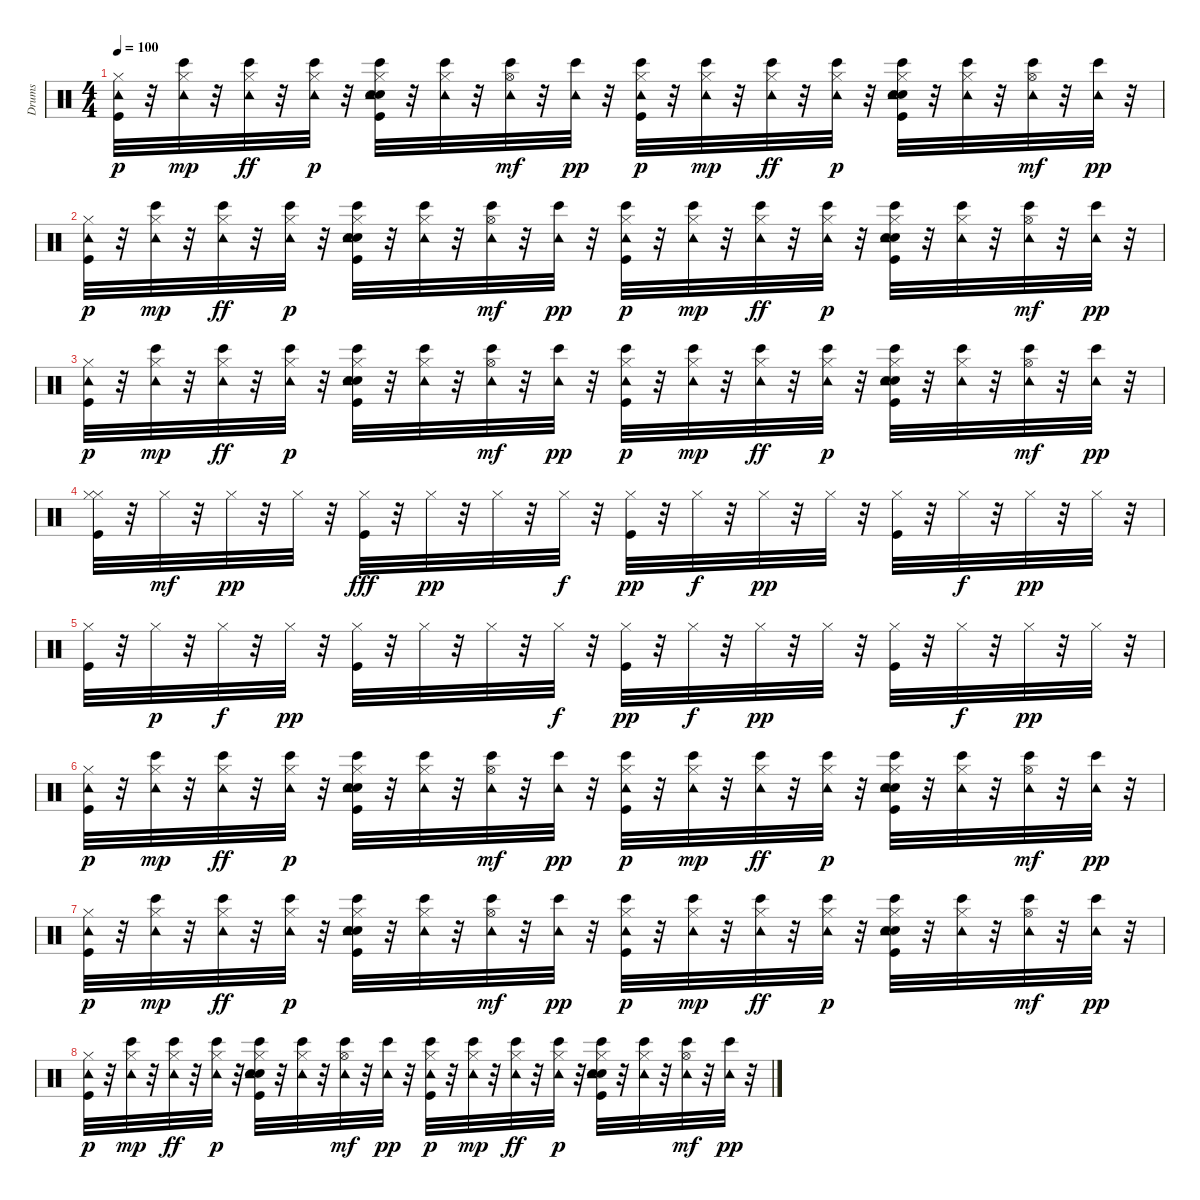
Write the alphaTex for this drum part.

\track ("Drums" "Drums") {instrument percussion}
\staff {score}
\articulation defaults
\ts (4 4)
\tempo 100
\clef neutral
\ks c
("Tambourine (hit)" "Kick (hit)" "Hi-Hat (closed)").32{dy p} r.32 ("Bongo High (hit)" "Tambourine (hit)" "Hi-Hat (closed)").32{dy mp} r.32 ("Bongo High (hit)" "Tambourine (hit)" "Hi-Hat (closed)").32{dy ff} r.32 ("Bongo High (hit)" "Tambourine (hit)" "Hi-Hat (closed)").32{dy p} r.32 ("Hand Clap (hit)" "Snare (hit) 2" "Bongo High (hit)" "Tambourine (hit)" "Kick (hit)" "Hi-Hat (closed)").32 r.32 ("Bongo High (hit)" "Tambourine (hit)" "Hi-Hat (closed)").32 r.32 ("Bongo High (hit)" "Tambourine (hit)" "Hi-Hat (open)").32{dy mf} r.32 ("Bongo High (hit)" "Tambourine (hit)").32{dy pp} r.32 ("Bongo High (hit)" "Tambourine (hit)" "Kick (hit)" "Hi-Hat (closed)").32{dy p} r.32 ("Bongo High (hit)" "Tambourine (hit)" "Hi-Hat (closed)").32{dy mp} r.32 ("Bongo High (hit)" "Tambourine (hit)" "Hi-Hat (closed)").32{dy ff} r.32 ("Bongo High (hit)" "Tambourine (hit)" "Hi-Hat (closed)").32{dy p} r.32 ("Hand Clap (hit)" "Snare (hit) 2" "Bongo High (hit)" "Tambourine (hit)" "Kick (hit)" "Hi-Hat (closed)").32 r.32 ("Bongo High (hit)" "Tambourine (hit)" "Hi-Hat (closed)").32 r.32 ("Bongo High (hit)" "Tambourine (hit)" "Hi-Hat (open)").32{dy mf} r.32 ("Bongo High (hit)" "Tambourine (hit)").32{dy pp} r.32 |
("Tambourine (hit)" "Kick (hit)" "Hi-Hat (closed)").32{dy p} r.32 ("Bongo High (hit)" "Tambourine (hit)" "Hi-Hat (closed)").32{dy mp} r.32 ("Bongo High (hit)" "Tambourine (hit)" "Hi-Hat (closed)").32{dy ff} r.32 ("Bongo High (hit)" "Tambourine (hit)" "Hi-Hat (closed)").32{dy p} r.32 ("Hand Clap (hit)" "Snare (hit) 2" "Bongo High (hit)" "Tambourine (hit)" "Kick (hit)" "Hi-Hat (closed)").32 r.32 ("Bongo High (hit)" "Tambourine (hit)" "Hi-Hat (closed)").32 r.32 ("Bongo High (hit)" "Tambourine (hit)" "Hi-Hat (open)").32{dy mf} r.32 ("Bongo High (hit)" "Tambourine (hit)").32{dy pp} r.32 ("Bongo High (hit)" "Tambourine (hit)" "Kick (hit)" "Hi-Hat (closed)").32{dy p} r.32 ("Bongo High (hit)" "Tambourine (hit)" "Hi-Hat (closed)").32{dy mp} r.32 ("Bongo High (hit)" "Tambourine (hit)" "Hi-Hat (closed)").32{dy ff} r.32 ("Bongo High (hit)" "Tambourine (hit)" "Hi-Hat (closed)").32{dy p} r.32 ("Hand Clap (hit)" "Snare (hit) 2" "Bongo High (hit)" "Tambourine (hit)" "Kick (hit)" "Hi-Hat (closed)").32 r.32 ("Bongo High (hit)" "Tambourine (hit)" "Hi-Hat (closed)").32 r.32 ("Bongo High (hit)" "Tambourine (hit)" "Hi-Hat (open)").32{dy mf} r.32 ("Bongo High (hit)" "Tambourine (hit)").32{dy pp} r.32 |
("Tambourine (hit)" "Kick (hit)" "Hi-Hat (closed)").32{dy p} r.32 ("Bongo High (hit)" "Tambourine (hit)" "Hi-Hat (closed)").32{dy mp} r.32 ("Bongo High (hit)" "Tambourine (hit)" "Hi-Hat (closed)").32{dy ff} r.32 ("Bongo High (hit)" "Tambourine (hit)" "Hi-Hat (closed)").32{dy p} r.32 ("Hand Clap (hit)" "Snare (hit) 2" "Bongo High (hit)" "Tambourine (hit)" "Kick (hit)" "Hi-Hat (closed)").32 r.32 ("Bongo High (hit)" "Tambourine (hit)" "Hi-Hat (closed)").32 r.32 ("Bongo High (hit)" "Tambourine (hit)" "Hi-Hat (open)").32{dy mf} r.32 ("Bongo High (hit)" "Tambourine (hit)").32{dy pp} r.32 ("Bongo High (hit)" "Tambourine (hit)" "Kick (hit)" "Hi-Hat (closed)").32{dy p} r.32 ("Bongo High (hit)" "Tambourine (hit)" "Hi-Hat (closed)").32{dy mp} r.32 ("Bongo High (hit)" "Tambourine (hit)" "Hi-Hat (closed)").32{dy ff} r.32 ("Bongo High (hit)" "Tambourine (hit)" "Hi-Hat (closed)").32{dy p} r.32 ("Hand Clap (hit)" "Snare (hit) 2" "Bongo High (hit)" "Tambourine (hit)" "Kick (hit)" "Hi-Hat (closed)").32 r.32 ("Bongo High (hit)" "Tambourine (hit)" "Hi-Hat (closed)").32 r.32 ("Bongo High (hit)" "Tambourine (hit)" "Hi-Hat (open)").32{dy mf} r.32 ("Bongo High (hit)" "Tambourine (hit)").32{dy pp} r.32 |
("Kick (hit)" "Hi-Hat (closed)" "Hi-Hat (closed)").32 r.32 "Hi-Hat (closed)".32{dy mf} r.32 "Hi-Hat (closed)".32{dy pp} r.32 "Hi-Hat (closed)".32 r.32 ("Kick (hit)" "Hi-Hat (closed)").32{dy fff} r.32 "Hi-Hat (closed)".32{dy pp} r.32 "Hi-Hat (closed)".32 r.32 "Hi-Hat (closed)".32{dy f} r.32 ("Kick (hit)" "Hi-Hat (closed)").32{dy pp} r.32 "Hi-Hat (closed)".32{dy f} r.32 "Hi-Hat (closed)".32{dy pp} r.32 "Hi-Hat (closed)".32 r.32 ("Kick (hit)" "Hi-Hat (closed)").32 r.32 "Hi-Hat (closed)".32{dy f} r.32 "Hi-Hat (closed)".32{dy pp} r.32 "Hi-Hat (closed)".32 r.32 |
("Kick (hit)" "Hi-Hat (closed)").32 r.32 "Hi-Hat (closed)".32{dy p} r.32 "Hi-Hat (closed)".32{dy f} r.32 "Hi-Hat (closed)".32{dy pp} r.32 ("Kick (hit)" "Hi-Hat (closed)").32 r.32 "Hi-Hat (closed)".32 r.32 "Hi-Hat (closed)".32 r.32 "Hi-Hat (closed)".32{dy f} r.32 ("Kick (hit)" "Hi-Hat (closed)").32{dy pp} r.32 "Hi-Hat (closed)".32{dy f} r.32 "Hi-Hat (closed)".32{dy pp} r.32 "Hi-Hat (closed)".32 r.32 ("Kick (hit)" "Hi-Hat (closed)").32 r.32 "Hi-Hat (closed)".32{dy f} r.32 "Hi-Hat (closed)".32{dy pp} r.32 "Hi-Hat (closed)".32 r.32 |
("Tambourine (hit)" "Kick (hit)" "Hi-Hat (closed)").32{dy p} r.32 ("Bongo High (hit)" "Tambourine (hit)" "Hi-Hat (closed)").32{dy mp} r.32 ("Bongo High (hit)" "Tambourine (hit)" "Hi-Hat (closed)").32{dy ff} r.32 ("Bongo High (hit)" "Tambourine (hit)" "Hi-Hat (closed)").32{dy p} r.32 ("Hand Clap (hit)" "Snare (hit) 2" "Bongo High (hit)" "Tambourine (hit)" "Kick (hit)" "Hi-Hat (closed)").32 r.32 ("Bongo High (hit)" "Tambourine (hit)" "Hi-Hat (closed)").32 r.32 ("Bongo High (hit)" "Tambourine (hit)" "Hi-Hat (open)").32{dy mf} r.32 ("Bongo High (hit)" "Tambourine (hit)").32{dy pp} r.32 ("Bongo High (hit)" "Tambourine (hit)" "Kick (hit)" "Hi-Hat (closed)").32{dy p} r.32 ("Bongo High (hit)" "Tambourine (hit)" "Hi-Hat (closed)").32{dy mp} r.32 ("Bongo High (hit)" "Tambourine (hit)" "Hi-Hat (closed)").32{dy ff} r.32 ("Bongo High (hit)" "Tambourine (hit)" "Hi-Hat (closed)").32{dy p} r.32 ("Hand Clap (hit)" "Snare (hit) 2" "Bongo High (hit)" "Tambourine (hit)" "Kick (hit)" "Hi-Hat (closed)").32 r.32 ("Bongo High (hit)" "Tambourine (hit)" "Hi-Hat (closed)").32 r.32 ("Bongo High (hit)" "Tambourine (hit)" "Hi-Hat (open)").32{dy mf} r.32 ("Bongo High (hit)" "Tambourine (hit)").32{dy pp} r.32 |
("Tambourine (hit)" "Kick (hit)" "Hi-Hat (closed)").32{dy p} r.32 ("Bongo High (hit)" "Tambourine (hit)" "Hi-Hat (closed)").32{dy mp} r.32 ("Bongo High (hit)" "Tambourine (hit)" "Hi-Hat (closed)").32{dy ff} r.32 ("Bongo High (hit)" "Tambourine (hit)" "Hi-Hat (closed)").32{dy p} r.32 ("Hand Clap (hit)" "Snare (hit) 2" "Bongo High (hit)" "Tambourine (hit)" "Kick (hit)" "Hi-Hat (closed)").32 r.32 ("Bongo High (hit)" "Tambourine (hit)" "Hi-Hat (closed)").32 r.32 ("Bongo High (hit)" "Tambourine (hit)" "Hi-Hat (open)").32{dy mf} r.32 ("Bongo High (hit)" "Tambourine (hit)").32{dy pp} r.32 ("Bongo High (hit)" "Tambourine (hit)" "Kick (hit)" "Hi-Hat (closed)").32{dy p} r.32 ("Bongo High (hit)" "Tambourine (hit)" "Hi-Hat (closed)").32{dy mp} r.32 ("Bongo High (hit)" "Tambourine (hit)" "Hi-Hat (closed)").32{dy ff} r.32 ("Bongo High (hit)" "Tambourine (hit)" "Hi-Hat (closed)").32{dy p} r.32 ("Hand Clap (hit)" "Snare (hit) 2" "Bongo High (hit)" "Tambourine (hit)" "Kick (hit)" "Hi-Hat (closed)").32 r.32 ("Bongo High (hit)" "Tambourine (hit)" "Hi-Hat (closed)").32 r.32 ("Bongo High (hit)" "Tambourine (hit)" "Hi-Hat (open)").32{dy mf} r.32 ("Bongo High (hit)" "Tambourine (hit)").32{dy pp} r.32 |
("Tambourine (hit)" "Kick (hit)" "Hi-Hat (closed)").32{dy p} r.32 ("Bongo High (hit)" "Tambourine (hit)" "Hi-Hat (closed)").32{dy mp} r.32 ("Bongo High (hit)" "Tambourine (hit)" "Hi-Hat (closed)").32{dy ff} r.32 ("Bongo High (hit)" "Tambourine (hit)" "Hi-Hat (closed)").32{dy p} r.32 ("Hand Clap (hit)" "Snare (hit) 2" "Bongo High (hit)" "Tambourine (hit)" "Kick (hit)" "Hi-Hat (closed)").32 r.32 ("Bongo High (hit)" "Tambourine (hit)" "Hi-Hat (closed)").32 r.32 ("Bongo High (hit)" "Tambourine (hit)" "Hi-Hat (open)").32{dy mf} r.32 ("Bongo High (hit)" "Tambourine (hit)").32{dy pp} r.32 ("Bongo High (hit)" "Tambourine (hit)" "Kick (hit)" "Hi-Hat (closed)").32{dy p} r.32 ("Bongo High (hit)" "Tambourine (hit)" "Hi-Hat (closed)").32{dy mp} r.32 ("Bongo High (hit)" "Tambourine (hit)" "Hi-Hat (closed)").32{dy ff} r.32 ("Bongo High (hit)" "Tambourine (hit)" "Hi-Hat (closed)").32{dy p} r.32 ("Hand Clap (hit)" "Snare (hit) 2" "Bongo High (hit)" "Tambourine (hit)" "Kick (hit)" "Hi-Hat (closed)").32 r.32 ("Bongo High (hit)" "Tambourine (hit)" "Hi-Hat (closed)").32 r.32 ("Bongo High (hit)" "Tambourine (hit)" "Hi-Hat (open)").32{dy mf} r.32 ("Bongo High (hit)" "Tambourine (hit)").32{dy pp} r.32
